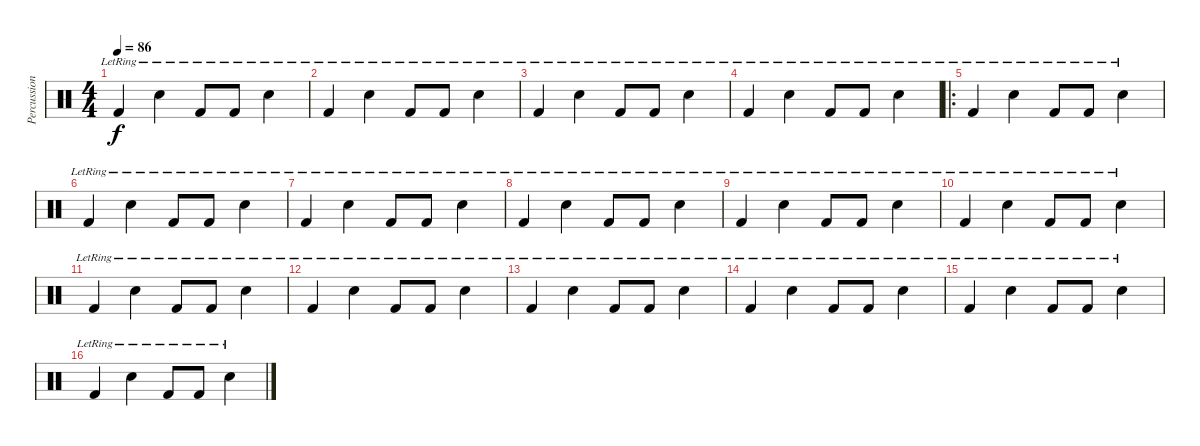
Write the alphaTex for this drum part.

\track ("Percussion" "Percussion") {instrument percussion}
\staff {score}
\articulation defaults
\ts (4 4)
\tempo 86
\clef neutral
\ks c "Kick (hit) 2"{lr}.4{dy f} "Electric Snare (hit)"{lr}.4 "Kick (hit) 2"{lr}.8 "Kick (hit) 2"{lr}.8 "Electric Snare (hit)"{lr}.4
|
"Kick (hit) 2"{lr}.4 "Electric Snare (hit)"{lr}.4 "Kick (hit) 2"{lr}.8 "Kick (hit) 2"{lr}.8 "Electric Snare (hit)"{lr}.4 |
"Kick (hit) 2"{lr}.4 "Electric Snare (hit)"{lr}.4 "Kick (hit) 2"{lr}.8 "Kick (hit) 2"{lr}.8 "Electric Snare (hit)"{lr}.4 |
"Kick (hit) 2"{lr}.4 "Electric Snare (hit)"{lr}.4 "Kick (hit) 2"{lr}.8 "Kick (hit) 2"{lr}.8 "Electric Snare (hit)"{lr}.4 |
\ro "Kick (hit) 2"{lr}.4 "Electric Snare (hit)"{lr}.4 "Kick (hit) 2"{lr}.8 "Kick (hit) 2"{lr}.8 "Electric Snare (hit)"{lr}.4
|
"Kick (hit) 2"{lr}.4 "Electric Snare (hit)"{lr}.4 "Kick (hit) 2"{lr}.8 "Kick (hit) 2"{lr}.8 "Electric Snare (hit)"{lr}.4 |
"Kick (hit) 2"{lr}.4 "Electric Snare (hit)"{lr}.4 "Kick (hit) 2"{lr}.8 "Kick (hit) 2"{lr}.8 "Electric Snare (hit)"{lr}.4 |
"Kick (hit) 2"{lr}.4 "Electric Snare (hit)"{lr}.4 "Kick (hit) 2"{lr}.8 "Kick (hit) 2"{lr}.8 "Electric Snare (hit)"{lr}.4 |
"Kick (hit) 2"{lr}.4 "Electric Snare (hit)"{lr}.4 "Kick (hit) 2"{lr}.8 "Kick (hit) 2"{lr}.8 "Electric Snare (hit)"{lr}.4 |
"Kick (hit) 2"{lr}.4 "Electric Snare (hit)"{lr}.4 "Kick (hit) 2"{lr}.8 "Kick (hit) 2"{lr}.8 "Electric Snare (hit)"{lr}.4 |
"Kick (hit) 2"{lr}.4 "Electric Snare (hit)"{lr}.4 "Kick (hit) 2"{lr}.8 "Kick (hit) 2"{lr}.8 "Electric Snare (hit)"{lr}.4 |
"Kick (hit) 2"{lr}.4 "Electric Snare (hit)"{lr}.4 "Kick (hit) 2"{lr}.8 "Kick (hit) 2"{lr}.8 "Electric Snare (hit)"{lr}.4 |
"Kick (hit) 2"{lr}.4 "Electric Snare (hit)"{lr}.4 "Kick (hit) 2"{lr}.8 "Kick (hit) 2"{lr}.8 "Electric Snare (hit)"{lr}.4 |
"Kick (hit) 2"{lr}.4 "Electric Snare (hit)"{lr}.4 "Kick (hit) 2"{lr}.8 "Kick (hit) 2"{lr}.8 "Electric Snare (hit)"{lr}.4 |
"Kick (hit) 2"{lr}.4 "Electric Snare (hit)"{lr}.4 "Kick (hit) 2"{lr}.8 "Kick (hit) 2"{lr}.8 "Electric Snare (hit)"{lr}.4 |
"Kick (hit) 2"{lr}.4 "Electric Snare (hit)"{lr}.4 "Kick (hit) 2"{lr}.8 "Kick (hit) 2"{lr}.8 "Electric Snare (hit)"{lr}.4
